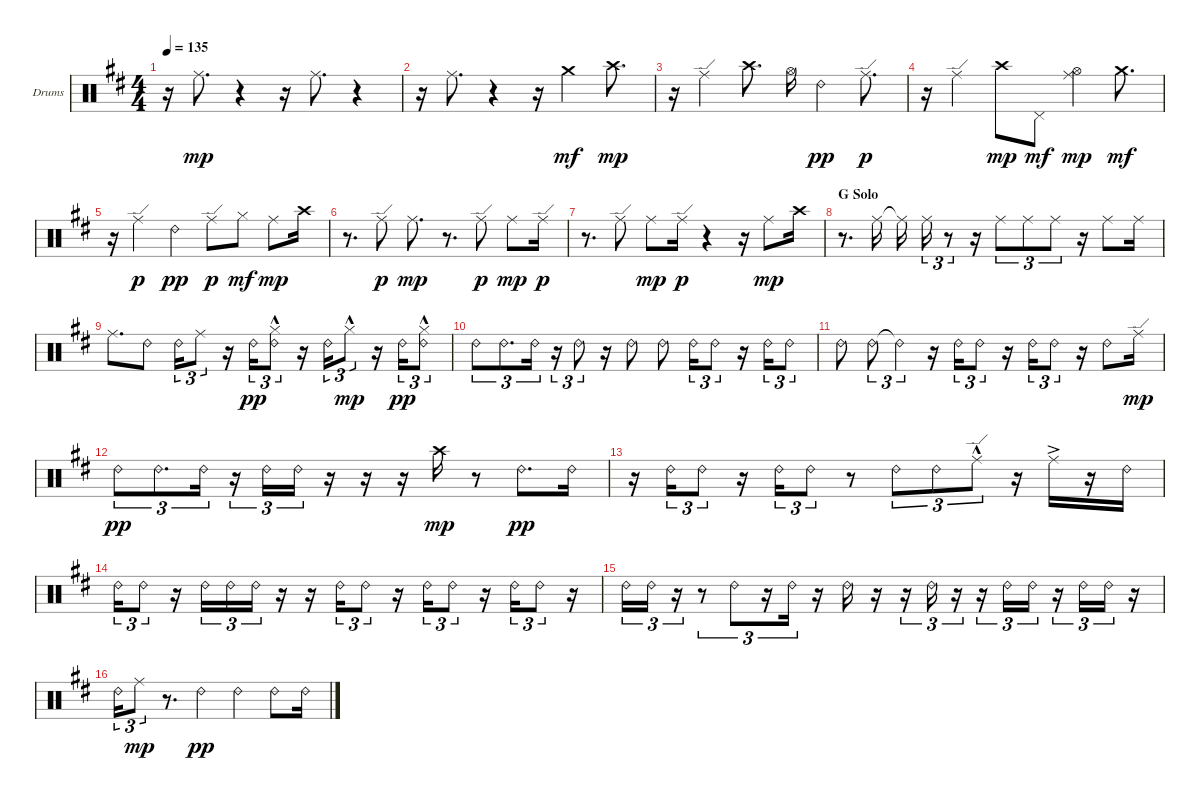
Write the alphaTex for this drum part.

\bracketExtendMode groupsimilarinstruments
\firstSystemTrackNameOrientation horizontal
\otherSystemsTrackNameOrientation horizontal
\track ("OH" "Drums") {instrument percussion}
\staff {score}
\articulation defaults
\ts (4 4)
\tempo 135
\clef neutral
\ks d
r.16{dy mp} "Ride (middle)".8{d} r.4 r.16 "Ride (middle)".8{d} r.4 |
r.16 "Ride (middle)".8{d} r.4 r.16 "Crash medium (hit)".4{dy mf} "Crash high (hit)".8{d dy mp} |
r.16 "Ride (edge)".4 "Crash high (hit)".8{d} "Hi-Hat (open)".16 "Ride (bell) 2".4{dy pp} "Ride (edge)".8{d dy p} |
r.16 "Ride (edge)".4 "Crash high (hit)".8{dy mp} "Pedal Hi-Hat (hit)".8{dy mf} ("Hi-Hat (open)" "Ride (middle)").4{dy mp} "Crash medium (hit)".8{d dy mf} |
r.16 "Ride (edge)".4{dy p} "Ride (bell) 2".4{dy pp} "Ride (edge)".8{dy p} "Hi-Hat (closed)".8{dy mf} "Ride (middle)".8{dy mp} "Crash high (hit)".16 |
r.8{d} "Ride (edge)".8{dy p} "Ride (middle)".8{d dy mp} r.8{d} "Ride (edge)".8{dy p} "Ride (middle)".8{dy mp} "Ride (edge)".16{dy p} |
r.8{d} "Ride (edge)".8 "Ride (middle)".8{dy mp} "Ride (edge)".16{dy p} r.4 r.16 "Ride (middle)".8{dy mp} "Crash high (hit)".16 |
\section ("" "G Solo")
r.8{d} "Ride (middle)".16 "Ride (middle)"{t}.16 "Ride (middle)".16{tu (3 2)} r.8{tu (3 2)} r.16 "Ride (middle)".8{tu (3 2)} "Ride (middle)".8{tu (3 2)} "Ride (middle)".8{tu (3 2)} r.16 "Ride (middle)".8 "Ride (middle)".16 |
"Ride (middle)".8{d} "Ride (bell) 2".8 "Ride (bell) 2".16{tu (3 2)} "Ride (middle)".8{tu (3 2)} r.16 "Ride (bell) 2".16{tu (3 2) dy pp} ("Ride (bell) 2" "Hi-Hat (closed)"{hac}).8{tu (3 2)} r.16 "Ride (bell) 2".16{tu (3 2)} "Hi-Hat (closed)"{hac}.8{tu (3 2) dy mp} r.16 "Ride (bell) 2".16{tu (3 2) dy pp} ("Ride (bell) 2" "Hi-Hat (closed)"{hac}).8{tu (3 2)} |
"Ride (bell) 2".8{tu (3 2)} "Ride (bell) 2".8{d tu (3 2)} "Ride (bell) 2".16{tu (3 2)} r.16{tu (3 2)} "Ride (bell) 2".8{tu (3 2)} r.16 "Ride (bell) 2".8 "Ride (bell) 2".8 "Ride (bell) 2".16{tu (3 2)} "Ride (bell) 2".8{tu (3 2)} r.16 "Ride (bell) 2".16{tu (3 2)} "Ride (bell) 2".8{tu (3 2)} |
"Ride (bell) 2".8 "Ride (bell) 2".8{tu (3 2)} "Ride (bell) 2"{t}.4{tu (3 2)} r.16 "Ride (bell) 2".16{tu (3 2)} "Ride (bell) 2".8{tu (3 2)} r.16 "Ride (bell) 2".16{tu (3 2)} "Ride (bell) 2".8{tu (3 2)} r.16 "Ride (bell) 2".8 "Ride (edge)".16{dy mp} |
"Ride (bell) 2".8{tu (3 2) dy pp} "Ride (bell) 2".8{d tu (3 2)} "Ride (bell) 2".16{tu (3 2)} r.16{tu (3 2)} "Ride (bell) 2".16{tu (3 2)} "Ride (bell) 2".16{tu (3 2)} r.16 r.16 r.16 "Crash high (hit)".16{dy mp} r.8 "Ride (bell) 2".8{d dy pp} "Ride (bell) 2".16 |
\scale
0.641429 r.16 "Ride (bell) 2".16{tu (3 2)} "Ride (bell) 2".8{tu (3 2)} r.16 "Ride (bell) 2".16{tu (3 2)} "Ride (bell) 2".8{tu (3 2)} r.8 "Ride (bell) 2".8{tu (3 2)} "Ride (bell) 2".8{tu (3 2)} "Ride (edge)"{hac}.8{tu (3 2)} r.16 "Ride (middle)"{ac}.16 r.16 "Ride (bell) 2".16 |
\scale
0.356814 "Ride (bell) 2".16{tu (3 2)} "Ride (bell) 2".8{tu (3 2)} r.16 "Ride (bell) 2".16{tu (3 2)} "Ride (bell) 2".16{tu (3 2)} "Ride (bell) 2".16{tu (3 2)} r.16 r.16 "Ride (bell) 2".16{tu (3 2)} "Ride (bell) 2".8{tu (3 2)} r.16 "Ride (bell) 2".16{tu (3 2)} "Ride (bell) 2".8{tu (3 2)} r.16 "Ride (bell) 2".16{tu (3 2)} "Ride (bell) 2".8{tu (3 2)} r.16 |
"Ride (bell) 2".16{tu (3 2)} "Ride (bell) 2".16{tu (3 2)} r.16{tu (3 2)} r.8{tu (3 2)} "Ride (bell) 2".8{tu (3 2)} r.16{tu (3 2)} "Ride (bell) 2".16{tu (3 2)} r.16 "Ride (bell) 2".16 r.16 r.16{tu (3 2)} "Ride (bell) 2".16{tu (3 2)} r.16{tu (3 2)} r.16{tu (3 2)} "Ride (bell) 2".16{tu (3 2)} "Ride (bell) 2".16{tu (3 2)} r.16{tu (3 2)} "Ride (bell) 2".16{tu (3 2)} "Ride (bell) 2".16{tu (3 2)} r.16 |
"Ride (bell) 2".16{tu (3 2)} "Ride (middle)".8{tu (3 2) dy mp} r.8{d} "Ride (bell) 2".4{dy pp} "Ride (bell) 2".4 "Ride (bell) 2".8 "Ride (bell) 2".16
